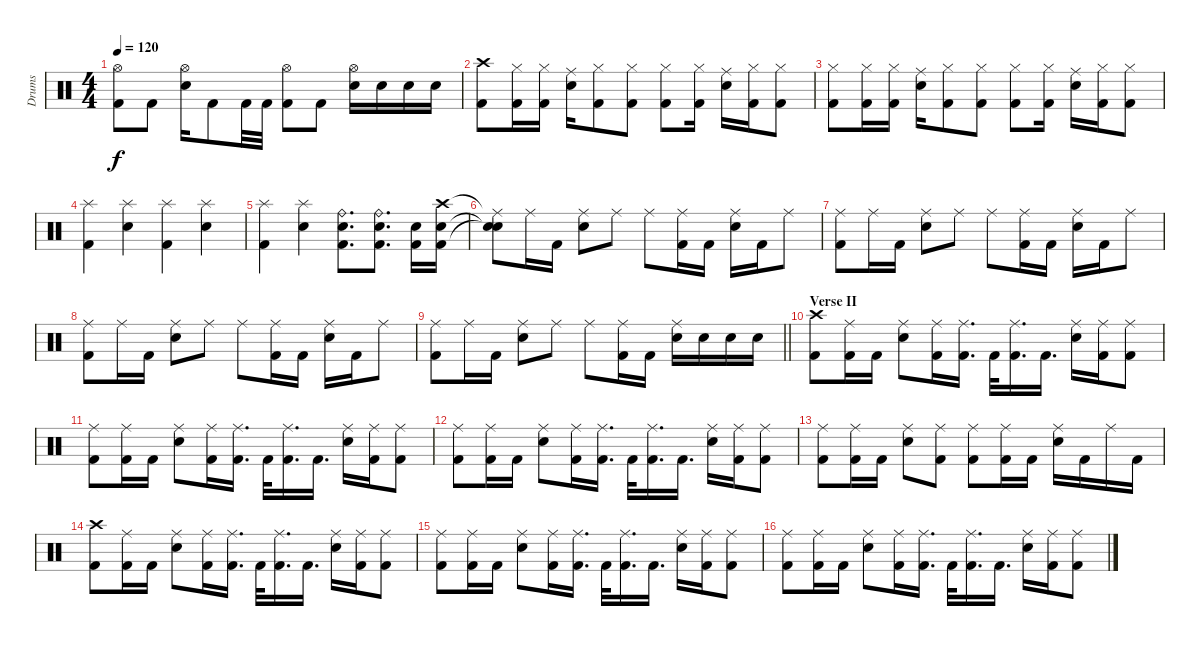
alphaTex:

\track ("Drums" "Drums") {instrument percussion}
\staff {score}
\articulation defaults
\ts (4 4)
\tempo 120
\clef neutral
\ks c
("Hi-Hat (open)" "Kick (hit) 2").8{dy f} "Kick (hit) 2".8 ("Hi-Hat (open)" "Snare (hit) 2").16 "Kick (hit) 2".8 "Kick (hit) 2".32 "Kick (hit) 2".32 ("Hi-Hat (open)" "Kick (hit) 2").8 "Kick (hit) 2".8 ("Hi-Hat (open)" "Snare (hit) 2").16 "Electric Snare (hit)".16 "Electric Snare (hit)".16 "Electric Snare (hit)".16 |
("Crash high (hit)" "Kick (hit) 2").8 ("Hi-Hat (closed)" "Kick (hit) 2").16 ("Hi-Hat (closed)" "Kick (hit) 2").16 ("Ride (middle)" "Snare (hit) 2").16 ("Hi-Hat (closed)" "Kick (hit) 2").8 ("Hi-Hat (closed)" "Kick (hit) 2").8 ("Hi-Hat (closed)" "Kick (hit) 2").8 ("Hi-Hat (closed)" "Kick (hit) 2").16 ("Ride (middle)" "Snare (hit) 2").16 ("Hi-Hat (closed)" "Kick (hit) 2").16 ("Hi-Hat (closed)" "Kick (hit) 2").8 |
("Hi-Hat (closed)" "Kick (hit) 2").8 ("Hi-Hat (closed)" "Kick (hit) 2").16 ("Hi-Hat (closed)" "Kick (hit) 2").16 ("Ride (middle)" "Snare (hit) 2").16 ("Hi-Hat (closed)" "Kick (hit) 2").8 ("Hi-Hat (closed)" "Kick (hit) 2").8 ("Hi-Hat (closed)" "Kick (hit) 2").8 ("Hi-Hat (closed)" "Kick (hit) 2").16 ("Ride (middle)" "Snare (hit) 2").16 ("Hi-Hat (closed)" "Kick (hit) 2").16 ("Hi-Hat (closed)" "Kick (hit) 2").8 |
("Splash (hit)" "Kick (hit) 2").4 ("Splash (hit)" "Snare (hit) 2").4 ("Splash (hit)" "Kick (hit) 2").4 ("Splash (hit)" "Snare (hit) 2").4 |
("Splash (hit)" "Kick (hit) 2").4 ("Splash (hit)" "Snare (hit) 2").4 ("Ride (bell)" "Snare (hit) 2" "Kick (hit) 2").8{d} ("Ride (bell)" "Snare (hit) 2" "Kick (hit) 2").8{d} ("Snare (hit) 2" "Kick (hit) 2").16 ("Crash high (hit)" "Snare (hit) 2" "Kick (hit) 2").16 |
("Ride (middle)"{t} "Snare (hit)"{t} "Snare (hit)"{t}).8 "Ride (middle)".16 "Kick (hit) 2".16 ("Ride (middle)" "Snare (hit) 2").8 "Ride (middle)".8 "Ride (middle)".8 ("Ride (middle)" "Kick (hit) 2").16 "Kick (hit) 2".16 ("Ride (middle)" "Snare (hit) 2").16 "Kick (hit) 2".16 "Ride (middle)".8 |
("Ride (middle)" "Kick (hit) 2").8 "Ride (middle)".16 "Kick (hit) 2".16 ("Ride (middle)" "Snare (hit) 2").8 "Ride (middle)".8 "Ride (middle)".8 ("Ride (middle)" "Kick (hit) 2").16 "Kick (hit) 2".16 ("Ride (middle)" "Snare (hit) 2").16 "Kick (hit) 2".16 "Ride (middle)".8 |
("Ride (middle)" "Kick (hit) 2").8 "Ride (middle)".16 "Kick (hit) 2".16 ("Ride (middle)" "Snare (hit) 2").8 "Ride (middle)".8 "Ride (middle)".8 ("Ride (middle)" "Kick (hit) 2").16 "Kick (hit) 2".16 ("Ride (middle)" "Snare (hit) 2").16 "Kick (hit) 2".16 "Ride (middle)".8 |
\barLineRight lightlight
("Ride (middle)" "Kick (hit) 2").8 "Ride (middle)".16 "Kick (hit) 2".16 ("Ride (middle)" "Snare (hit) 2").8 "Ride (middle)".8 "Ride (middle)".8 ("Ride (middle)" "Kick (hit) 2").16 "Kick (hit) 2".16 ("Ride (middle)" "Snare (hit) 2").16 "Electric Snare (hit)".16 "Electric Snare (hit)".16 "Electric Snare (hit)".16 |
\section ("" "Verse II")
("Crash high (hit)" "Kick (hit) 2").8 ("Ride (middle)" "Kick (hit) 2").16 "Kick (hit) 2".16 ("Ride (middle)" "Snare (hit) 2").8 ("Ride (middle)" "Kick (hit) 2").16 ("Ride (middle)" "Kick (hit) 2").16{d} "Kick (hit) 2".32 ("Ride (middle)" "Kick (hit) 2").16{d} "Kick (hit) 2".16{d} ("Ride (middle)" "Snare (hit) 2").16 ("Ride (middle)" "Kick (hit) 2").16 ("Ride (middle)" "Kick (hit) 2").8 |
("Ride (middle)" "Kick (hit) 2").8 ("Ride (middle)" "Kick (hit) 2").16 "Kick (hit) 2".16 ("Ride (middle)" "Snare (hit) 2").8 ("Ride (middle)" "Kick (hit) 2").16 ("Ride (middle)" "Kick (hit) 2").16{d} "Kick (hit) 2".32 ("Ride (middle)" "Kick (hit) 2").16{d} "Kick (hit) 2".16{d} ("Ride (middle)" "Snare (hit) 2").16 ("Ride (middle)" "Kick (hit) 2").16 ("Ride (middle)" "Kick (hit) 2").8 |
("Ride (middle)" "Kick (hit) 2").8 ("Ride (middle)" "Kick (hit) 2").16 "Kick (hit) 2".16 ("Ride (middle)" "Snare (hit) 2").8 ("Ride (middle)" "Kick (hit) 2").16 ("Ride (middle)" "Kick (hit) 2").16{d} "Kick (hit) 2".32 ("Ride (middle)" "Kick (hit) 2").16{d} "Kick (hit) 2".16{d} ("Ride (middle)" "Snare (hit) 2").16 ("Ride (middle)" "Kick (hit) 2").16 ("Ride (middle)" "Kick (hit) 2").8 |
("Ride (middle)" "Kick (hit) 2").8 ("Ride (middle)" "Kick (hit) 2").16 "Kick (hit) 2".16 ("Ride (middle)" "Snare (hit) 2").8 ("Ride (middle)" "Kick (hit) 2").8 ("Ride (middle)" "Kick (hit) 2").8 ("Ride (middle)" "Kick (hit) 2").16 "Kick (hit) 2".16 ("Ride (middle)" "Snare (hit) 2").16 "Kick (hit) 2".16 "Ride (middle)".16 "Kick (hit) 2".16 |
("Crash high (hit)" "Kick (hit) 2").8 ("Ride (middle)" "Kick (hit) 2").16 "Kick (hit) 2".16 ("Ride (middle)" "Snare (hit) 2").8 ("Ride (middle)" "Kick (hit) 2").16 ("Ride (middle)" "Kick (hit) 2").16{d} "Kick (hit) 2".32 ("Ride (middle)" "Kick (hit) 2").16{d} "Kick (hit) 2".16{d} ("Ride (middle)" "Snare (hit) 2").16 ("Ride (middle)" "Kick (hit) 2").16 ("Ride (middle)" "Kick (hit) 2").8 |
("Ride (middle)" "Kick (hit) 2").8 ("Ride (middle)" "Kick (hit) 2").16 "Kick (hit) 2".16 ("Ride (middle)" "Snare (hit) 2").8 ("Ride (middle)" "Kick (hit) 2").16 ("Ride (middle)" "Kick (hit) 2").16{d} "Kick (hit) 2".32 ("Ride (middle)" "Kick (hit) 2").16{d} "Kick (hit) 2".16{d} ("Ride (middle)" "Snare (hit) 2").16 ("Ride (middle)" "Kick (hit) 2").16 ("Ride (middle)" "Kick (hit) 2").8 |
("Ride (middle)" "Kick (hit) 2").8 ("Ride (middle)" "Kick (hit) 2").16 "Kick (hit) 2".16 ("Ride (middle)" "Snare (hit) 2").8 ("Ride (middle)" "Kick (hit) 2").16 ("Ride (middle)" "Kick (hit) 2").16{d} "Kick (hit) 2".32 ("Ride (middle)" "Kick (hit) 2").16{d} "Kick (hit) 2".16{d} ("Ride (middle)" "Snare (hit) 2").16 ("Ride (middle)" "Kick (hit) 2").16 ("Ride (middle)" "Kick (hit) 2").8
